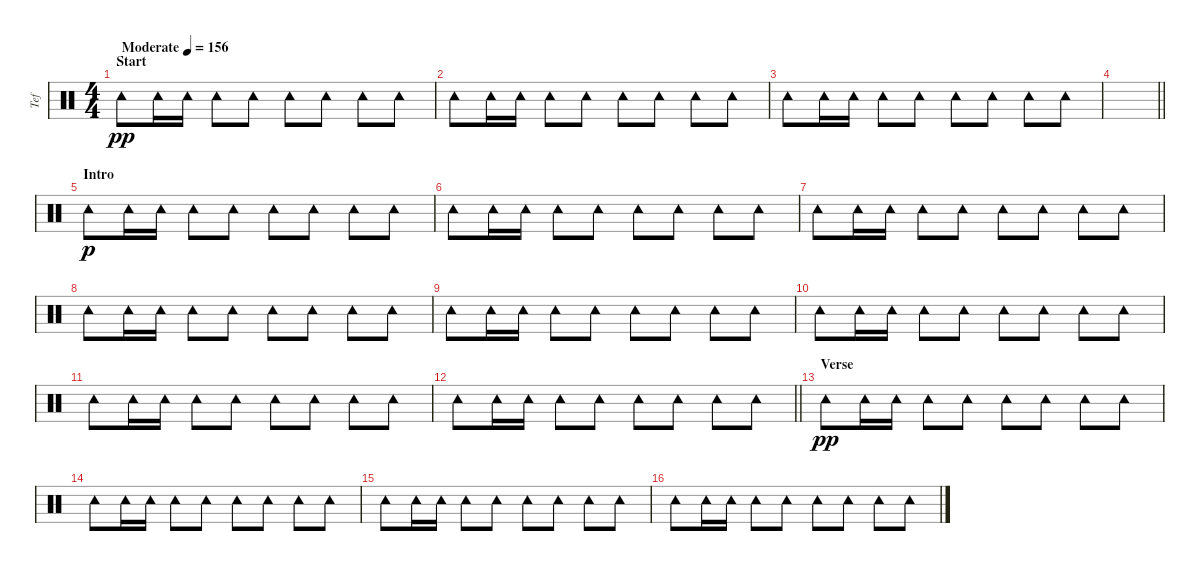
\track ("Tef" "Tef") {instrument percussion}
\staff {score}
\articulation defaults
\ts (4 4)
\section ("" "Start")
\tempo (156 "Moderate")
\clef neutral
\ks c "Tambourine (hit)".8{dy pp} "Tambourine (hit)".16 "Tambourine (hit)".16 "Tambourine (hit)".8 "Tambourine (hit)".8 "Tambourine (hit)".8 "Tambourine (hit)".8 "Tambourine (hit)".8 "Tambourine (hit)".8
|
"Tambourine (hit)".8 "Tambourine (hit)".16 "Tambourine (hit)".16 "Tambourine (hit)".8 "Tambourine (hit)".8 "Tambourine (hit)".8 "Tambourine (hit)".8 "Tambourine (hit)".8 "Tambourine (hit)".8 |
"Tambourine (hit)".8 "Tambourine (hit)".16 "Tambourine (hit)".16 "Tambourine (hit)".8 "Tambourine (hit)".8 "Tambourine (hit)".8 "Tambourine (hit)".8 "Tambourine (hit)".8 "Tambourine (hit)".8 |
\barLineRight lightlight
|
\section ("" "Intro")
"Tambourine (hit)".8{dy p} "Tambourine (hit)".16 "Tambourine (hit)".16 "Tambourine (hit)".8 "Tambourine (hit)".8 "Tambourine (hit)".8 "Tambourine (hit)".8 "Tambourine (hit)".8 "Tambourine (hit)".8 |
"Tambourine (hit)".8 "Tambourine (hit)".16 "Tambourine (hit)".16 "Tambourine (hit)".8 "Tambourine (hit)".8 "Tambourine (hit)".8 "Tambourine (hit)".8 "Tambourine (hit)".8 "Tambourine (hit)".8 |
"Tambourine (hit)".8 "Tambourine (hit)".16 "Tambourine (hit)".16 "Tambourine (hit)".8 "Tambourine (hit)".8 "Tambourine (hit)".8 "Tambourine (hit)".8 "Tambourine (hit)".8 "Tambourine (hit)".8 |
"Tambourine (hit)".8 "Tambourine (hit)".16 "Tambourine (hit)".16 "Tambourine (hit)".8 "Tambourine (hit)".8 "Tambourine (hit)".8 "Tambourine (hit)".8 "Tambourine (hit)".8 "Tambourine (hit)".8 |
"Tambourine (hit)".8 "Tambourine (hit)".16 "Tambourine (hit)".16 "Tambourine (hit)".8 "Tambourine (hit)".8 "Tambourine (hit)".8 "Tambourine (hit)".8 "Tambourine (hit)".8 "Tambourine (hit)".8 |
"Tambourine (hit)".8 "Tambourine (hit)".16 "Tambourine (hit)".16 "Tambourine (hit)".8 "Tambourine (hit)".8 "Tambourine (hit)".8 "Tambourine (hit)".8 "Tambourine (hit)".8 "Tambourine (hit)".8 |
"Tambourine (hit)".8 "Tambourine (hit)".16 "Tambourine (hit)".16 "Tambourine (hit)".8 "Tambourine (hit)".8 "Tambourine (hit)".8 "Tambourine (hit)".8 "Tambourine (hit)".8 "Tambourine (hit)".8 |
\barLineRight lightlight "Tambourine (hit)".8 "Tambourine (hit)".16 "Tambourine (hit)".16 "Tambourine (hit)".8 "Tambourine (hit)".8 "Tambourine (hit)".8 "Tambourine (hit)".8 "Tambourine (hit)".8 "Tambourine (hit)".8
|
\section ("" "Verse")
"Tambourine (hit)".8{dy pp} "Tambourine (hit)".16 "Tambourine (hit)".16 "Tambourine (hit)".8 "Tambourine (hit)".8 "Tambourine (hit)".8 "Tambourine (hit)".8 "Tambourine (hit)".8 "Tambourine (hit)".8 |
"Tambourine (hit)".8 "Tambourine (hit)".16 "Tambourine (hit)".16 "Tambourine (hit)".8 "Tambourine (hit)".8 "Tambourine (hit)".8 "Tambourine (hit)".8 "Tambourine (hit)".8 "Tambourine (hit)".8 |
"Tambourine (hit)".8 "Tambourine (hit)".16 "Tambourine (hit)".16 "Tambourine (hit)".8 "Tambourine (hit)".8 "Tambourine (hit)".8 "Tambourine (hit)".8 "Tambourine (hit)".8 "Tambourine (hit)".8 |
"Tambourine (hit)".8 "Tambourine (hit)".16 "Tambourine (hit)".16 "Tambourine (hit)".8 "Tambourine (hit)".8 "Tambourine (hit)".8 "Tambourine (hit)".8 "Tambourine (hit)".8 "Tambourine (hit)".8
